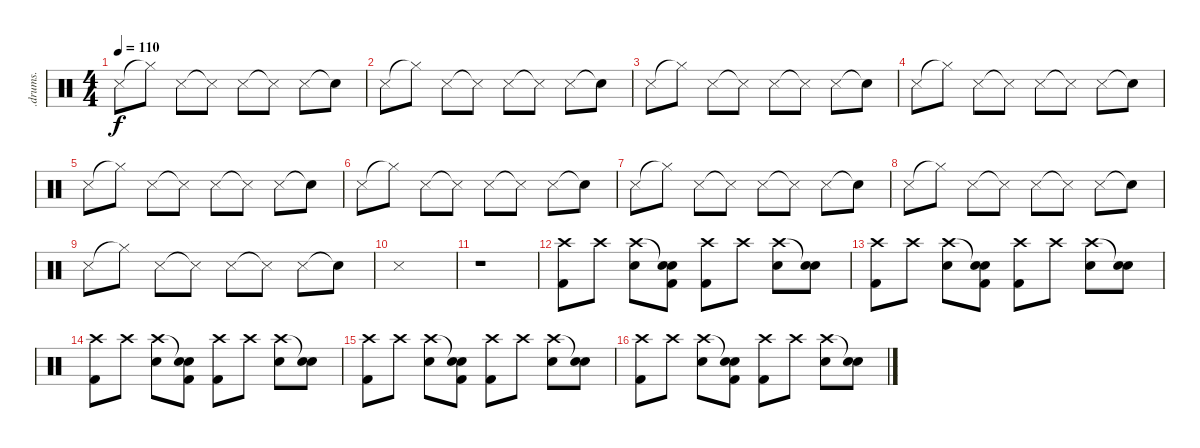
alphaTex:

\track (".drums." ".drums.") {instrument percussion}
\staff {score}
\articulation defaults
\ts (4 4)
\tempo 110
\clef neutral
\ks c "Snare (side stick) 3".8{dy f} "Hi-Hat (closed)"{t}.8 "Snare (side stick) 3".8 "Snare (side stick) 3"{t}.8 "Snare (side stick) 3".8 "Snare (side stick) 3"{t}.8 "Snare (side stick) 3".8 "Snare (hit)"{t}.8
|
"Snare (side stick) 3".8 "Hi-Hat (closed)"{t}.8 "Snare (side stick) 3".8 "Snare (side stick) 3"{t}.8 "Snare (side stick) 3".8 "Snare (side stick) 3"{t}.8 "Snare (side stick) 3".8 "Snare (hit)"{t}.8 |
"Snare (side stick) 3".8 "Hi-Hat (closed)"{t}.8 "Snare (side stick) 3".8 "Snare (side stick) 3"{t}.8 "Snare (side stick) 3".8 "Snare (side stick) 3"{t}.8 "Snare (side stick) 3".8 "Snare (hit)"{t}.8 |
"Snare (side stick) 3".8 "Hi-Hat (closed)"{t}.8 "Snare (side stick) 3".8 "Snare (side stick) 3"{t}.8 "Snare (side stick) 3".8 "Snare (side stick) 3"{t}.8 "Snare (side stick) 3".8 "Snare (hit)"{t}.8 |
"Snare (side stick) 3".8 "Hi-Hat (closed)"{t}.8 "Snare (side stick) 3".8 "Snare (side stick) 3"{t}.8 "Snare (side stick) 3".8 "Snare (side stick) 3"{t}.8 "Snare (side stick) 3".8 "Snare (hit)"{t}.8 |
"Snare (side stick) 3".8 "Hi-Hat (closed)"{t}.8 "Snare (side stick) 3".8 "Snare (side stick) 3"{t}.8 "Snare (side stick) 3".8 "Snare (side stick) 3"{t}.8 "Snare (side stick) 3".8 "Snare (hit)"{t}.8 |
"Snare (side stick) 3".8 "Hi-Hat (closed)"{t}.8 "Snare (side stick) 3".8 "Snare (side stick) 3"{t}.8 "Snare (side stick) 3".8 "Snare (side stick) 3"{t}.8 "Snare (side stick) 3".8 "Snare (hit)"{t}.8 |
"Snare (side stick) 3".8 "Hi-Hat (closed)"{t}.8 "Snare (side stick) 3".8 "Snare (side stick) 3"{t}.8 "Snare (side stick) 3".8 "Snare (side stick) 3"{t}.8 "Snare (side stick) 3".8 "Snare (hit)"{t}.8 |
"Snare (side stick) 3".8 "Hi-Hat (closed)"{t}.8 "Snare (side stick) 3".8 "Snare (side stick) 3"{t}.8 "Snare (side stick) 3".8 "Snare (side stick) 3"{t}.8 "Snare (side stick) 3".8 "Snare (hit)"{t}.8 |
"Snare (side stick) 3".1 |
r.1 |
("Crash high (hit)" "Kick (hit) 2").8 "Crash high (hit)".8 ("Crash high (hit)" "Snare (hit) 2").8 ("Snare (hit)"{t} "Snare (hit) 2" "Kick (hit) 2").8 ("Crash high (hit)" "Kick (hit) 2").8 "Crash high (hit)".8 ("Crash high (hit)" "Snare (hit) 2").8 ("Snare (hit)"{t} "Snare (hit) 2").8 |
("Crash high (hit)" "Kick (hit) 2").8 "Crash high (hit)".8 ("Crash high (hit)" "Snare (hit) 2").8 ("Snare (hit)"{t} "Snare (hit) 2" "Kick (hit) 2").8 ("Crash high (hit)" "Kick (hit) 2").8 "Crash high (hit)".8 ("Crash high (hit)" "Snare (hit) 2").8 ("Snare (hit)"{t} "Snare (hit) 2").8 |
("Crash high (hit)" "Kick (hit) 2").8 "Crash high (hit)".8 ("Crash high (hit)" "Snare (hit) 2").8 ("Snare (hit)"{t} "Snare (hit) 2" "Kick (hit) 2").8 ("Crash high (hit)" "Kick (hit) 2").8 "Crash high (hit)".8 ("Crash high (hit)" "Snare (hit) 2").8 ("Snare (hit)"{t} "Snare (hit) 2").8 |
("Crash high (hit)" "Kick (hit) 2").8 "Crash high (hit)".8 ("Crash high (hit)" "Snare (hit) 2").8 ("Snare (hit)"{t} "Snare (hit) 2" "Kick (hit) 2").8 ("Crash high (hit)" "Kick (hit) 2").8 "Crash high (hit)".8 ("Crash high (hit)" "Snare (hit) 2").8 ("Snare (hit)"{t} "Snare (hit) 2").8 |
("Crash high (hit)" "Kick (hit) 2").8 "Crash high (hit)".8 ("Crash high (hit)" "Snare (hit) 2").8 ("Snare (hit)"{t} "Snare (hit) 2" "Kick (hit) 2").8 ("Crash high (hit)" "Kick (hit) 2").8 "Crash high (hit)".8 ("Crash high (hit)" "Snare (hit) 2").8 ("Snare (hit)"{t} "Snare (hit) 2").8
